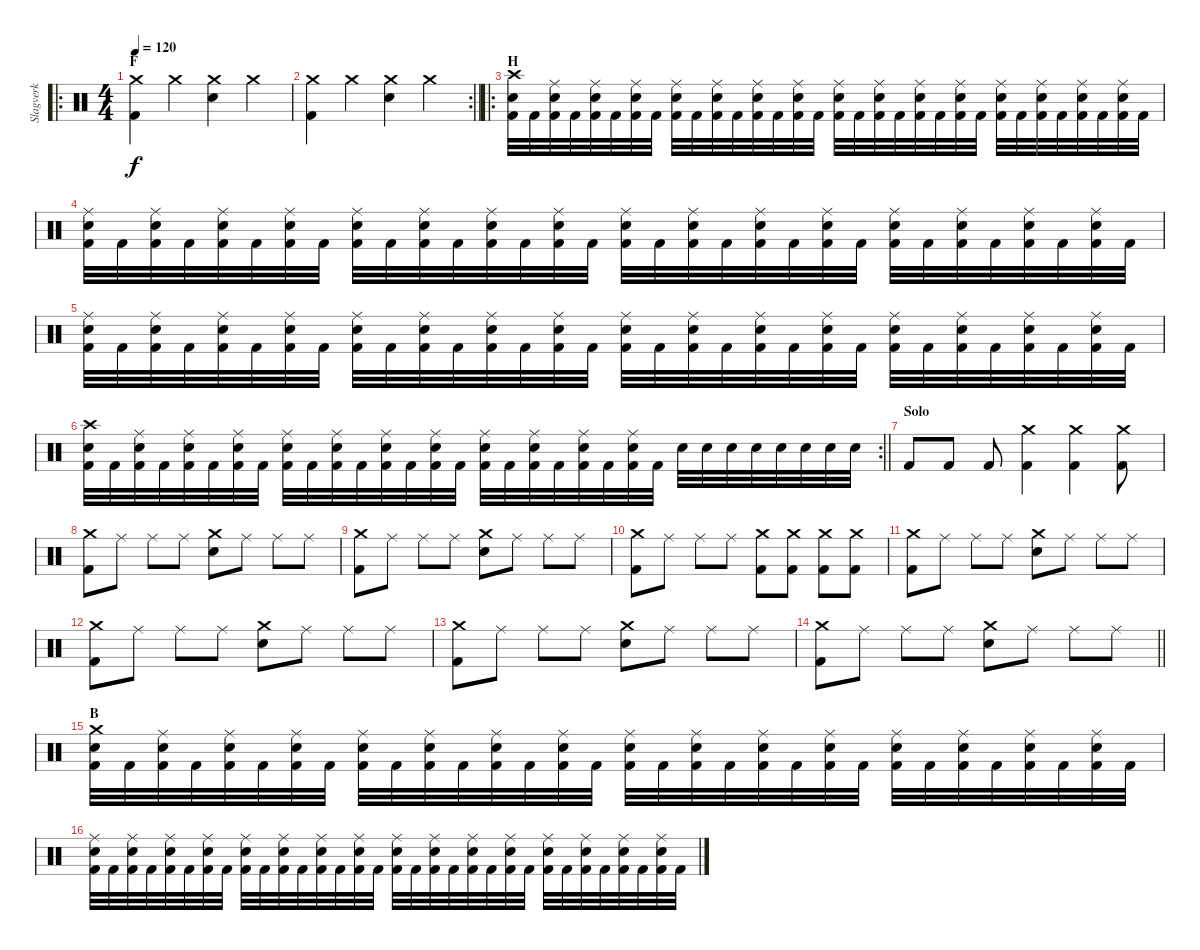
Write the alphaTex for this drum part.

\track ("Slagverk" "Slagverk") {instrument percussion}
\staff {score}
\articulation defaults
\ro
\ts (4 4)
\section ("" "F")
\tempo 120
\clef neutral
\ks c
("Crash medium (hit)" "Kick (hit) 2").4{dy f} "Crash medium (hit)".4 ("Crash medium (hit)" "Electric Snare (hit)").4 "Crash medium (hit)".4 |
\rc 2
\barLineRight lightlight
("Crash medium (hit)" "Kick (hit) 2").4 "Crash medium (hit)".4 ("Crash medium (hit)" "Electric Snare (hit)").4 "Crash medium (hit)".4 |
\ro
\section ("" "H")
("Crash high (hit)" "Electric Snare (hit)" "Kick (hit) 2").32 "Kick (hit) 2".32 ("Ride (middle)" "Electric Snare (hit)" "Kick (hit) 2").32 "Kick (hit) 2".32 ("Ride (middle)" "Electric Snare (hit)" "Kick (hit) 2").32 "Kick (hit) 2".32 ("Ride (middle)" "Electric Snare (hit)" "Kick (hit) 2").32 "Kick (hit) 2".32 ("Ride (middle)" "Electric Snare (hit)" "Kick (hit) 2").32 "Kick (hit) 2".32 ("Ride (middle)" "Electric Snare (hit)" "Kick (hit) 2").32 "Kick (hit) 2".32 ("Ride (middle)" "Electric Snare (hit)" "Kick (hit) 2").32 "Kick (hit) 2".32 ("Ride (middle)" "Electric Snare (hit)" "Kick (hit) 2").32 "Kick (hit) 2".32 ("Ride (middle)" "Electric Snare (hit)" "Kick (hit) 2").32 "Kick (hit) 2".32 ("Ride (middle)" "Electric Snare (hit)" "Kick (hit) 2").32 "Kick (hit) 2".32 ("Ride (middle)" "Electric Snare (hit)" "Kick (hit) 2").32 "Kick (hit) 2".32 ("Ride (middle)" "Electric Snare (hit)" "Kick (hit) 2").32 "Kick (hit) 2".32 ("Ride (middle)" "Electric Snare (hit)" "Kick (hit) 2").32 "Kick (hit) 2".32 ("Ride (middle)" "Electric Snare (hit)" "Kick (hit) 2").32 "Kick (hit) 2".32 ("Ride (middle)" "Electric Snare (hit)" "Kick (hit) 2").32 "Kick (hit) 2".32 ("Ride (middle)" "Electric Snare (hit)" "Kick (hit) 2").32 "Kick (hit) 2".32 |
("Ride (middle)" "Electric Snare (hit)" "Kick (hit) 2").32 "Kick (hit) 2".32 ("Ride (middle)" "Electric Snare (hit)" "Kick (hit) 2").32 "Kick (hit) 2".32 ("Ride (middle)" "Electric Snare (hit)" "Kick (hit) 2").32 "Kick (hit) 2".32 ("Ride (middle)" "Electric Snare (hit)" "Kick (hit) 2").32 "Kick (hit) 2".32 ("Ride (middle)" "Electric Snare (hit)" "Kick (hit) 2").32 "Kick (hit) 2".32 ("Ride (middle)" "Electric Snare (hit)" "Kick (hit) 2").32 "Kick (hit) 2".32 ("Ride (middle)" "Electric Snare (hit)" "Kick (hit) 2").32 "Kick (hit) 2".32 ("Ride (middle)" "Electric Snare (hit)" "Kick (hit) 2").32 "Kick (hit) 2".32 ("Ride (middle)" "Electric Snare (hit)" "Kick (hit) 2").32 "Kick (hit) 2".32 ("Ride (middle)" "Electric Snare (hit)" "Kick (hit) 2").32 "Kick (hit) 2".32 ("Ride (middle)" "Electric Snare (hit)" "Kick (hit) 2").32 "Kick (hit) 2".32 ("Ride (middle)" "Electric Snare (hit)" "Kick (hit) 2").32 "Kick (hit) 2".32 ("Ride (middle)" "Electric Snare (hit)" "Kick (hit) 2").32 "Kick (hit) 2".32 ("Ride (middle)" "Electric Snare (hit)" "Kick (hit) 2").32 "Kick (hit) 2".32 ("Ride (middle)" "Electric Snare (hit)" "Kick (hit) 2").32 "Kick (hit) 2".32 ("Ride (middle)" "Electric Snare (hit)" "Kick (hit) 2").32 "Kick (hit) 2".32 |
("Ride (middle)" "Electric Snare (hit)" "Kick (hit) 2").32 "Kick (hit) 2".32 ("Ride (middle)" "Electric Snare (hit)" "Kick (hit) 2").32 "Kick (hit) 2".32 ("Ride (middle)" "Electric Snare (hit)" "Kick (hit) 2").32 "Kick (hit) 2".32 ("Ride (middle)" "Electric Snare (hit)" "Kick (hit) 2").32 "Kick (hit) 2".32 ("Ride (middle)" "Electric Snare (hit)" "Kick (hit) 2").32 "Kick (hit) 2".32 ("Ride (middle)" "Electric Snare (hit)" "Kick (hit) 2").32 "Kick (hit) 2".32 ("Ride (middle)" "Electric Snare (hit)" "Kick (hit) 2").32 "Kick (hit) 2".32 ("Ride (middle)" "Electric Snare (hit)" "Kick (hit) 2").32 "Kick (hit) 2".32 ("Ride (middle)" "Electric Snare (hit)" "Kick (hit) 2").32 "Kick (hit) 2".32 ("Ride (middle)" "Electric Snare (hit)" "Kick (hit) 2").32 "Kick (hit) 2".32 ("Ride (middle)" "Electric Snare (hit)" "Kick (hit) 2").32 "Kick (hit) 2".32 ("Ride (middle)" "Electric Snare (hit)" "Kick (hit) 2").32 "Kick (hit) 2".32 ("Ride (middle)" "Electric Snare (hit)" "Kick (hit) 2").32 "Kick (hit) 2".32 ("Ride (middle)" "Electric Snare (hit)" "Kick (hit) 2").32 "Kick (hit) 2".32 ("Ride (middle)" "Electric Snare (hit)" "Kick (hit) 2").32 "Kick (hit) 2".32 ("Ride (middle)" "Electric Snare (hit)" "Kick (hit) 2").32 "Kick (hit) 2".32 |
\rc 2
\barLineRight lightlight
("Crash high (hit)" "Electric Snare (hit)" "Kick (hit) 2").32 "Kick (hit) 2".32 ("Ride (middle)" "Electric Snare (hit)" "Kick (hit) 2").32 "Kick (hit) 2".32 ("Ride (middle)" "Electric Snare (hit)" "Kick (hit) 2").32 "Kick (hit) 2".32 ("Ride (middle)" "Electric Snare (hit)" "Kick (hit) 2").32 "Kick (hit) 2".32 ("Ride (middle)" "Electric Snare (hit)" "Kick (hit) 2").32 "Kick (hit) 2".32 ("Ride (middle)" "Electric Snare (hit)" "Kick (hit) 2").32 "Kick (hit) 2".32 ("Ride (middle)" "Electric Snare (hit)" "Kick (hit) 2").32 "Kick (hit) 2".32 ("Ride (middle)" "Electric Snare (hit)" "Kick (hit) 2").32 "Kick (hit) 2".32 ("Ride (middle)" "Electric Snare (hit)" "Kick (hit) 2").32 "Kick (hit) 2".32 ("Ride (middle)" "Electric Snare (hit)" "Kick (hit) 2").32 "Kick (hit) 2".32 ("Ride (middle)" "Electric Snare (hit)" "Kick (hit) 2").32 "Kick (hit) 2".32 ("Ride (middle)" "Electric Snare (hit)" "Kick (hit) 2").32 "Kick (hit) 2".32 "Electric Snare (hit)".32 "Electric Snare (hit)".32 "Electric Snare (hit)".32 "Electric Snare (hit)".32 "Electric Snare (hit)".32 "Electric Snare (hit)".32 "Electric Snare (hit)".32 "Electric Snare (hit)".32 |
\section ("" "Solo")
"Kick (hit) 2".8 "Kick (hit) 2".8 "Kick (hit) 2".8 ("Crash medium (hit)" "Kick (hit) 2").4 ("Crash medium (hit)" "Kick (hit) 2").4 ("Crash medium (hit)" "Kick (hit) 2").8 |
("Crash medium (hit)" "Kick (hit) 2").8 "Ride (middle)".8 "Ride (middle)".8 "Ride (middle)".8 ("Crash medium (hit)" "Electric Snare (hit)").8 "Ride (middle)".8 "Ride (middle)".8 "Ride (middle)".8 |
("Crash medium (hit)" "Kick (hit) 2").8 "Ride (middle)".8 "Ride (middle)".8 "Ride (middle)".8 ("Crash medium (hit)" "Electric Snare (hit)").8 "Ride (middle)".8 "Ride (middle)".8 "Ride (middle)".8 |
("Crash medium (hit)" "Kick (hit) 2").8 "Ride (middle)".8 "Ride (middle)".8 "Ride (middle)".8 ("Crash medium (hit)" "Kick (hit) 2").8 ("Crash medium (hit)" "Kick (hit) 2").8 ("Crash medium (hit)" "Kick (hit) 2").8 ("Crash medium (hit)" "Kick (hit) 2").8 |
("Crash medium (hit)" "Kick (hit) 2").8 "Ride (middle)".8 "Ride (middle)".8 "Ride (middle)".8 ("Crash medium (hit)" "Electric Snare (hit)").8 "Ride (middle)".8 "Ride (middle)".8 "Ride (middle)".8 |
("Crash medium (hit)" "Kick (hit) 2").8 "Ride (middle)".8 "Ride (middle)".8 "Ride (middle)".8 ("Crash medium (hit)" "Electric Snare (hit)").8 "Ride (middle)".8 "Ride (middle)".8 "Ride (middle)".8 |
("Crash medium (hit)" "Kick (hit) 2").8 "Ride (middle)".8 "Ride (middle)".8 "Ride (middle)".8 ("Crash medium (hit)" "Electric Snare (hit)").8 "Ride (middle)".8 "Ride (middle)".8 "Ride (middle)".8 |
\barLineRight lightlight
("Crash medium (hit)" "Kick (hit) 2").8 "Ride (middle)".8 "Ride (middle)".8 "Ride (middle)".8 ("Crash medium (hit)" "Electric Snare (hit)").8 "Ride (middle)".8 "Ride (middle)".8 "Ride (middle)".8 |
\section ("" "B")
("Crash medium (hit)" "Electric Snare (hit)" "Kick (hit) 2").32 "Kick (hit) 2".32 ("Ride (middle)" "Electric Snare (hit)" "Kick (hit) 2").32 "Kick (hit) 2".32 ("Ride (middle)" "Electric Snare (hit)" "Kick (hit) 2").32 "Kick (hit) 2".32 ("Ride (middle)" "Electric Snare (hit)" "Kick (hit) 2").32 "Kick (hit) 2".32 ("Ride (middle)" "Electric Snare (hit)" "Kick (hit) 2").32 "Kick (hit) 2".32 ("Ride (middle)" "Electric Snare (hit)" "Kick (hit) 2").32 "Kick (hit) 2".32 ("Ride (middle)" "Electric Snare (hit)" "Kick (hit) 2").32 "Kick (hit) 2".32 ("Ride (middle)" "Electric Snare (hit)" "Kick (hit) 2").32 "Kick (hit) 2".32 ("Ride (middle)" "Electric Snare (hit)" "Kick (hit) 2").32 "Kick (hit) 2".32 ("Ride (middle)" "Electric Snare (hit)" "Kick (hit) 2").32 "Kick (hit) 2".32 ("Ride (middle)" "Electric Snare (hit)" "Kick (hit) 2").32 "Kick (hit) 2".32 ("Ride (middle)" "Electric Snare (hit)" "Kick (hit) 2").32 "Kick (hit) 2".32 ("Ride (middle)" "Electric Snare (hit)" "Kick (hit) 2").32 "Kick (hit) 2".32 ("Ride (middle)" "Electric Snare (hit)" "Kick (hit) 2").32 "Kick (hit) 2".32 ("Ride (middle)" "Electric Snare (hit)" "Kick (hit) 2").32 "Kick (hit) 2".32 ("Ride (middle)" "Electric Snare (hit)" "Kick (hit) 2").32 "Kick (hit) 2".32 |
("Ride (middle)" "Electric Snare (hit)" "Kick (hit) 2").32 "Kick (hit) 2".32 ("Ride (middle)" "Electric Snare (hit)" "Kick (hit) 2").32 "Kick (hit) 2".32 ("Ride (middle)" "Electric Snare (hit)" "Kick (hit) 2").32 "Kick (hit) 2".32 ("Ride (middle)" "Electric Snare (hit)" "Kick (hit) 2").32 "Kick (hit) 2".32 ("Ride (middle)" "Electric Snare (hit)" "Kick (hit) 2").32 "Kick (hit) 2".32 ("Ride (middle)" "Electric Snare (hit)" "Kick (hit) 2").32 "Kick (hit) 2".32 ("Ride (middle)" "Electric Snare (hit)" "Kick (hit) 2").32 "Kick (hit) 2".32 ("Ride (middle)" "Electric Snare (hit)" "Kick (hit) 2").32 "Kick (hit) 2".32 ("Ride (middle)" "Electric Snare (hit)" "Kick (hit) 2").32 "Kick (hit) 2".32 ("Ride (middle)" "Electric Snare (hit)" "Kick (hit) 2").32 "Kick (hit) 2".32 ("Ride (middle)" "Electric Snare (hit)" "Kick (hit) 2").32 "Kick (hit) 2".32 ("Ride (middle)" "Electric Snare (hit)" "Kick (hit) 2").32 "Kick (hit) 2".32 ("Ride (middle)" "Electric Snare (hit)" "Kick (hit) 2").32 "Kick (hit) 2".32 ("Ride (middle)" "Electric Snare (hit)" "Kick (hit) 2").32 "Kick (hit) 2".32 ("Ride (middle)" "Electric Snare (hit)" "Kick (hit) 2").32 "Kick (hit) 2".32 ("Ride (middle)" "Electric Snare (hit)" "Kick (hit) 2").32 "Kick (hit) 2".32
